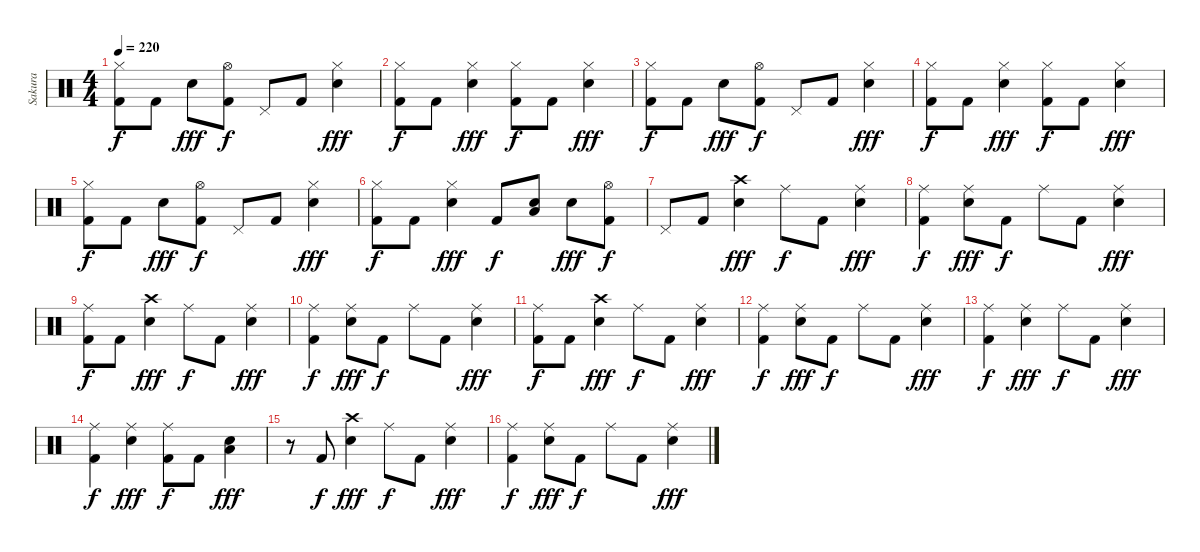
\track ("Sakura" "Sakura") {instrument percussion}
\staff {score}
\articulation defaults
\ts (4 4)
\tempo 220
\clef neutral
\ks c
("Hi-Hat (closed)" "Kick (hit) 2").8{dy f} "Kick (hit) 2".8 "Electric Snare (hit)".8{dy fff} ("Hi-Hat (open)" "Kick (hit) 2").8{dy f} "Pedal Hi-Hat (hit)".8 "Kick (hit) 2".8 ("Hi-Hat (closed)" "Electric Snare (hit)").4{dy fff} |
("Hi-Hat (closed)" "Kick (hit) 2").8{dy f} "Kick (hit) 2".8 ("Hi-Hat (closed)" "Electric Snare (hit)").4{dy fff} ("Hi-Hat (closed)" "Kick (hit) 2").8{dy f} "Kick (hit) 2".8 ("Hi-Hat (closed)" "Electric Snare (hit)").4{dy fff} |
("Hi-Hat (closed)" "Kick (hit) 2").8{dy f} "Kick (hit) 2".8 "Electric Snare (hit)".8{dy fff} ("Hi-Hat (open)" "Kick (hit) 2").8{dy f} "Pedal Hi-Hat (hit)".8 "Kick (hit) 2".8 ("Hi-Hat (closed)" "Electric Snare (hit)").4{dy fff} |
("Hi-Hat (closed)" "Kick (hit) 2").8{dy f} "Kick (hit) 2".8 ("Hi-Hat (closed)" "Electric Snare (hit)").4{dy fff} ("Hi-Hat (closed)" "Kick (hit) 2").8{dy f} "Kick (hit) 2".8 ("Hi-Hat (closed)" "Electric Snare (hit)").4{dy fff} |
("Hi-Hat (closed)" "Kick (hit) 2").8{dy f} "Kick (hit) 2".8 "Electric Snare (hit)".8{dy fff} ("Hi-Hat (open)" "Kick (hit) 2").8{dy f} "Pedal Hi-Hat (hit)".8 "Kick (hit) 2".8 ("Hi-Hat (closed)" "Electric Snare (hit)").4{dy fff} |
("Hi-Hat (closed)" "Kick (hit) 2").8{dy f} "Kick (hit) 2".8 ("Hi-Hat (closed)" "Electric Snare (hit)").4{dy fff} "Kick (hit) 2".8{dy f} ("Electric Snare (hit)" "Low Tom (hit)").8 "Electric Snare (hit)".8{dy fff} ("Hi-Hat (open)" "Kick (hit) 2").8{dy f} |
"Pedal Hi-Hat (hit)".8 "Kick (hit) 2".8 ("Crash high (hit)" "Electric Snare (hit)").4{dy fff} "Ride (middle)".8{dy f} "Kick (hit) 2".8 ("Ride (middle)" "Electric Snare (hit)").4{dy fff} |
("Ride (middle)" "Kick (hit) 2").4{dy f} ("Ride (middle)" "Electric Snare (hit)").8{dy fff} "Kick (hit) 2".8{dy f} "Ride (middle)".8 "Kick (hit) 2".8 ("Ride (middle)" "Electric Snare (hit)").4{dy fff} |
("Ride (middle)" "Kick (hit) 2").8{dy f} "Kick (hit) 2".8 ("Crash high (hit)" "Electric Snare (hit)").4{dy fff} "Ride (middle)".8{dy f} "Kick (hit) 2".8 ("Ride (middle)" "Electric Snare (hit)").4{dy fff} |
("Ride (middle)" "Kick (hit) 2").4{dy f} ("Ride (middle)" "Electric Snare (hit)").8{dy fff} "Kick (hit) 2".8{dy f} "Ride (middle)".8 "Kick (hit) 2".8 ("Ride (middle)" "Electric Snare (hit)").4{dy fff} |
("Ride (middle)" "Kick (hit) 2").8{dy f} "Kick (hit) 2".8 ("Crash high (hit)" "Electric Snare (hit)").4{dy fff} "Ride (middle)".8{dy f} "Kick (hit) 2".8 ("Ride (middle)" "Electric Snare (hit)").4{dy fff} |
("Ride (middle)" "Kick (hit) 2").4{dy f} ("Ride (middle)" "Electric Snare (hit)").8{dy fff} "Kick (hit) 2".8{dy f} "Ride (middle)".8 "Kick (hit) 2".8 ("Ride (middle)" "Electric Snare (hit)").4{dy fff} |
("Ride (middle)" "Kick (hit) 2").4{dy f} ("Ride (middle)" "Electric Snare (hit)").4{dy fff} "Ride (middle)".8{dy f} "Kick (hit) 2".8 ("Ride (middle)" "Electric Snare (hit)").4{dy fff} |
("Ride (middle)" "Kick (hit) 2").4{dy f} ("Ride (middle)" "Electric Snare (hit)").4{dy fff} ("Ride (middle)" "Kick (hit) 2").8{dy f} "Kick (hit) 2".8 ("Electric Snare (hit)" "Low Tom (hit)").4{dy fff} |
r.8 "Kick (hit) 2".8{dy f} ("Crash high (hit)" "Electric Snare (hit)").4{dy fff} "Ride (middle)".8{dy f} "Kick (hit) 2".8 ("Ride (middle)" "Electric Snare (hit)").4{dy fff} |
("Ride (middle)" "Kick (hit) 2").4{dy f} ("Ride (middle)" "Electric Snare (hit)").8{dy fff} "Kick (hit) 2".8{dy f} "Ride (middle)".8 "Kick (hit) 2".8 ("Ride (middle)" "Electric Snare (hit)").4{dy fff}
